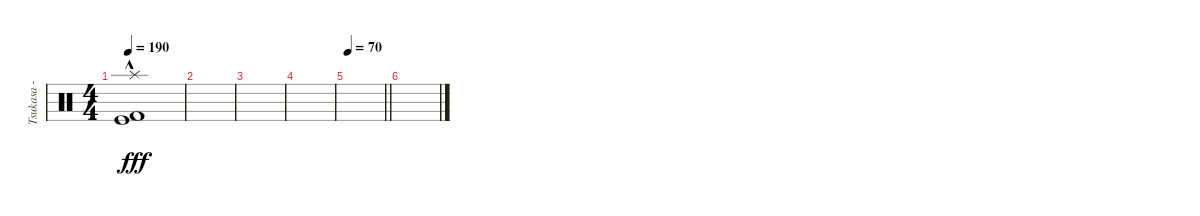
\track ("Tsukasa - Drums" "Tsukasa - ") {instrument percussion}
\staff {score}
\articulation defaults
\ts (4 4)
\tempo 190
\clef neutral
\ks c
("Splash (hit)"{hac} "Kick (hit)" "Kick (hit) 2").1{dy fff} |
|
|
|
\tempo 70
\barLineRight lightlight
|
\section ("" "")
